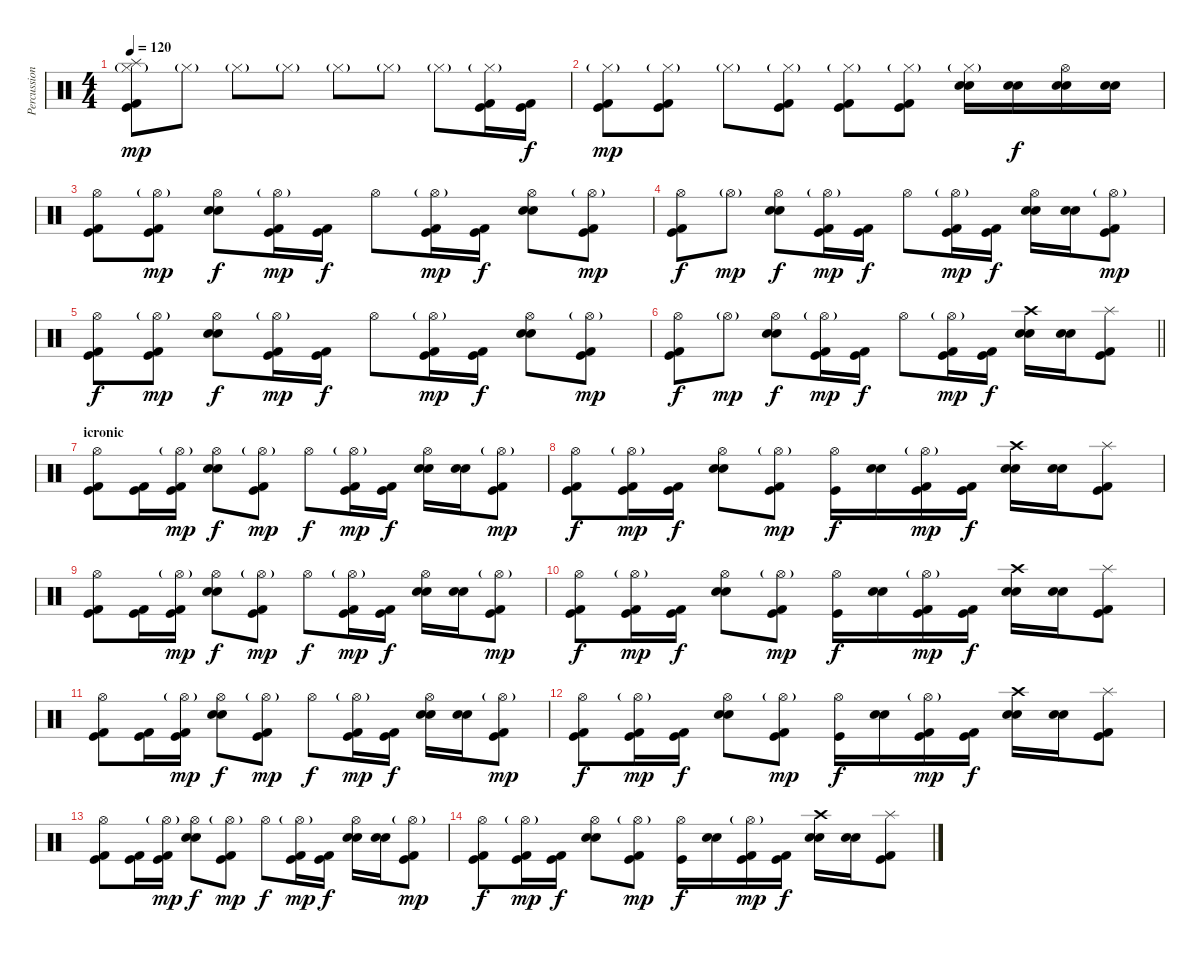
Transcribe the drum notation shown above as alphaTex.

\track ("Percussion" "Percussion") {instrument percussion}
\staff {score}
\articulation defaults
\ts (4 4)
\tempo 120
\clef neutral
\ks c
("Hi-Hat (closed)"{g} "Splash (hit)" "Kick (hit) 2" "Kick (hit)").8{dy mp} "Hi-Hat (closed)"{g}.8 "Hi-Hat (closed)"{g}.8 "Hi-Hat (closed)"{g}.8 "Hi-Hat (closed)"{g}.8 "Hi-Hat (closed)"{g}.8 "Hi-Hat (closed)"{g}.8 ("Hi-Hat (closed)"{g} "Kick (hit) 2" "Kick (hit)").16 ("Kick (hit) 2" "Kick (hit)").16{dy f} |
("Hi-Hat (closed)"{g} "Kick (hit) 2" "Kick (hit)").8{dy mp} ("Hi-Hat (closed)"{g} "Kick (hit) 2" "Kick (hit)").8 "Hi-Hat (closed)"{g}.8 ("Hi-Hat (closed)"{g} "Kick (hit) 2" "Kick (hit)").8 ("Hi-Hat (closed)"{g} "Kick (hit) 2" "Kick (hit)").8 ("Hi-Hat (closed)"{g} "Kick (hit) 2" "Kick (hit)").8 ("Hi-Hat (closed)"{g} "Electric Snare (hit)" "Snare (hit) 2").16 ("Electric Snare (hit)" "Snare (hit) 2").16{dy f} ("Hi-Hat (open)" "Electric Snare (hit)" "Snare (hit) 2").16 ("Electric Snare (hit)" "Snare (hit) 2").16 |
("Hi-Hat (open)" "Kick (hit) 2" "Kick (hit)").8 ("Hi-Hat (open)"{g} "Kick (hit) 2" "Kick (hit)").8{dy mp} ("Hi-Hat (open)" "Electric Snare (hit)" "Snare (hit) 2").8{dy f} ("Hi-Hat (open)"{g} "Kick (hit) 2" "Kick (hit)").16{dy mp} ("Kick (hit) 2" "Kick (hit)").16{dy f} "Hi-Hat (open)".8 ("Hi-Hat (open)"{g} "Kick (hit) 2" "Kick (hit)").16{dy mp} ("Kick (hit) 2" "Kick (hit)").16{dy f} ("Hi-Hat (open)" "Electric Snare (hit)" "Snare (hit) 2").8 ("Hi-Hat (open)"{g} "Kick (hit) 2" "Kick (hit)").8{dy mp} |
("Hi-Hat (open)" "Kick (hit) 2" "Kick (hit)").8{dy f} "Hi-Hat (open)"{g}.8{dy mp} ("Hi-Hat (open)" "Electric Snare (hit)" "Snare (hit) 2").8{dy f} ("Hi-Hat (open)"{g} "Kick (hit) 2" "Kick (hit)").16{dy mp} ("Kick (hit) 2" "Kick (hit)").16{dy f} "Hi-Hat (open)".8 ("Hi-Hat (open)"{g} "Kick (hit) 2" "Kick (hit)").16{dy mp} ("Kick (hit) 2" "Kick (hit)").16{dy f} ("Hi-Hat (open)" "Electric Snare (hit)" "Snare (hit) 2").16 ("Electric Snare (hit)" "Snare (hit) 2").16 ("Hi-Hat (open)"{g} "Kick (hit) 2" "Kick (hit)").8{dy mp} |
("Hi-Hat (open)" "Kick (hit) 2" "Kick (hit)").8{dy f} ("Hi-Hat (open)"{g} "Kick (hit) 2" "Kick (hit)").8{dy mp} ("Hi-Hat (open)" "Electric Snare (hit)" "Snare (hit) 2").8{dy f} ("Hi-Hat (open)"{g} "Kick (hit) 2" "Kick (hit)").16{dy mp} ("Kick (hit) 2" "Kick (hit)").16{dy f} "Hi-Hat (open)".8 ("Hi-Hat (open)"{g} "Kick (hit) 2" "Kick (hit)").16{dy mp} ("Kick (hit) 2" "Kick (hit)").16{dy f} ("Hi-Hat (open)" "Electric Snare (hit)" "Snare (hit) 2").8 ("Hi-Hat (open)"{g} "Kick (hit) 2" "Kick (hit)").8{dy mp} |
\barLineRight lightlight
("Hi-Hat (open)" "Kick (hit) 2" "Kick (hit)").8{dy f} "Hi-Hat (open)"{g}.8{dy mp} ("Hi-Hat (open)" "Electric Snare (hit)" "Snare (hit) 2").8{dy f} ("Hi-Hat (open)"{g} "Kick (hit) 2" "Kick (hit)").16{dy mp} ("Kick (hit) 2" "Kick (hit)").16{dy f} "Hi-Hat (open)".8 ("Hi-Hat (open)"{g} "Kick (hit) 2" "Kick (hit)").16{dy mp} ("Kick (hit) 2" "Kick (hit)").16{dy f} ("Crash high (hit)" "Electric Snare (hit)" "Snare (hit) 2").16 ("Electric Snare (hit)" "Snare (hit) 2").16 ("Splash (hit)" "Kick (hit) 2" "Kick (hit)").8 |
\section ("" "icronic")
("Hi-Hat (open)" "Kick (hit) 2" "Kick (hit)").8 ("Kick (hit) 2" "Kick (hit)").16 ("Hi-Hat (open)"{g} "Kick (hit) 2" "Kick (hit)").16{dy mp} ("Hi-Hat (open)" "Electric Snare (hit)" "Snare (hit) 2").8{dy f} ("Hi-Hat (open)"{g} "Kick (hit) 2" "Kick (hit)").8{dy mp} "Hi-Hat (open)".8{dy f} ("Hi-Hat (open)"{g} "Kick (hit) 2" "Kick (hit)").16{dy mp} ("Kick (hit) 2" "Kick (hit)").16{dy f} ("Hi-Hat (open)" "Electric Snare (hit)" "Snare (hit) 2").16 ("Electric Snare (hit)" "Snare (hit) 2").16 ("Hi-Hat (open)"{g} "Kick (hit) 2" "Kick (hit)").8{dy mp} |
("Hi-Hat (open)" "Kick (hit) 2" "Kick (hit)").8{dy f} ("Hi-Hat (open)"{g} "Kick (hit) 2" "Kick (hit)").16{dy mp} ("Kick (hit) 2" "Kick (hit)").16{dy f} ("Hi-Hat (open)" "Electric Snare (hit)" "Snare (hit) 2").8 ("Hi-Hat (open)"{g} "Kick (hit) 2" "Kick (hit)").8{dy mp} ("Hi-Hat (open)" "Kick (hit)").16{dy f} ("Electric Snare (hit)" "Snare (hit) 2").16 ("Hi-Hat (open)"{g} "Kick (hit) 2" "Kick (hit)").16{dy mp} ("Kick (hit) 2" "Kick (hit)").16{dy f} ("Crash high (hit)" "Electric Snare (hit)" "Snare (hit) 2").16 ("Electric Snare (hit)" "Snare (hit) 2").16 ("Splash (hit)" "Kick (hit) 2" "Kick (hit)").8 |
("Hi-Hat (open)" "Kick (hit) 2" "Kick (hit)").8 ("Kick (hit) 2" "Kick (hit)").16 ("Hi-Hat (open)"{g} "Kick (hit) 2" "Kick (hit)").16{dy mp} ("Hi-Hat (open)" "Electric Snare (hit)" "Snare (hit) 2").8{dy f} ("Hi-Hat (open)"{g} "Kick (hit) 2" "Kick (hit)").8{dy mp} "Hi-Hat (open)".8{dy f} ("Hi-Hat (open)"{g} "Kick (hit) 2" "Kick (hit)").16{dy mp} ("Kick (hit) 2" "Kick (hit)").16{dy f} ("Hi-Hat (open)" "Electric Snare (hit)" "Snare (hit) 2").16 ("Electric Snare (hit)" "Snare (hit) 2").16 ("Hi-Hat (open)"{g} "Kick (hit) 2" "Kick (hit)").8{dy mp} |
("Hi-Hat (open)" "Kick (hit) 2" "Kick (hit)").8{dy f} ("Hi-Hat (open)"{g} "Kick (hit) 2" "Kick (hit)").16{dy mp} ("Kick (hit) 2" "Kick (hit)").16{dy f} ("Hi-Hat (open)" "Electric Snare (hit)" "Snare (hit) 2").8 ("Hi-Hat (open)"{g} "Kick (hit) 2" "Kick (hit)").8{dy mp} ("Hi-Hat (open)" "Kick (hit)").16{dy f} ("Electric Snare (hit)" "Snare (hit) 2").16 ("Hi-Hat (open)"{g} "Kick (hit) 2" "Kick (hit)").16{dy mp} ("Kick (hit) 2" "Kick (hit)").16{dy f} ("Crash high (hit)" "Electric Snare (hit)" "Snare (hit) 2").16 ("Electric Snare (hit)" "Snare (hit) 2").16 ("Splash (hit)" "Kick (hit) 2" "Kick (hit)").8 |
("Hi-Hat (open)" "Kick (hit) 2" "Kick (hit)").8 ("Kick (hit) 2" "Kick (hit)").16 ("Hi-Hat (open)"{g} "Kick (hit) 2" "Kick (hit)").16{dy mp} ("Hi-Hat (open)" "Electric Snare (hit)" "Snare (hit) 2").8{dy f} ("Hi-Hat (open)"{g} "Kick (hit) 2" "Kick (hit)").8{dy mp} "Hi-Hat (open)".8{dy f} ("Hi-Hat (open)"{g} "Kick (hit) 2" "Kick (hit)").16{dy mp} ("Kick (hit) 2" "Kick (hit)").16{dy f} ("Hi-Hat (open)" "Electric Snare (hit)" "Snare (hit) 2").16 ("Electric Snare (hit)" "Snare (hit) 2").16 ("Hi-Hat (open)"{g} "Kick (hit) 2" "Kick (hit)").8{dy mp} |
("Hi-Hat (open)" "Kick (hit) 2" "Kick (hit)").8{dy f} ("Hi-Hat (open)"{g} "Kick (hit) 2" "Kick (hit)").16{dy mp} ("Kick (hit) 2" "Kick (hit)").16{dy f} ("Hi-Hat (open)" "Electric Snare (hit)" "Snare (hit) 2").8 ("Hi-Hat (open)"{g} "Kick (hit) 2" "Kick (hit)").8{dy mp} ("Hi-Hat (open)" "Kick (hit)").16{dy f} ("Electric Snare (hit)" "Snare (hit) 2").16 ("Hi-Hat (open)"{g} "Kick (hit) 2" "Kick (hit)").16{dy mp} ("Kick (hit) 2" "Kick (hit)").16{dy f} ("Crash high (hit)" "Electric Snare (hit)" "Snare (hit) 2").16 ("Electric Snare (hit)" "Snare (hit) 2").16 ("Splash (hit)" "Kick (hit) 2" "Kick (hit)").8 |
("Hi-Hat (open)" "Kick (hit) 2" "Kick (hit)").8 ("Kick (hit) 2" "Kick (hit)").16 ("Hi-Hat (open)"{g} "Kick (hit) 2" "Kick (hit)").16{dy mp} ("Hi-Hat (open)" "Electric Snare (hit)" "Snare (hit) 2").8{dy f} ("Hi-Hat (open)"{g} "Kick (hit) 2" "Kick (hit)").8{dy mp} "Hi-Hat (open)".8{dy f} ("Hi-Hat (open)"{g} "Kick (hit) 2" "Kick (hit)").16{dy mp} ("Kick (hit) 2" "Kick (hit)").16{dy f} ("Hi-Hat (open)" "Electric Snare (hit)" "Snare (hit) 2").16 ("Electric Snare (hit)" "Snare (hit) 2").16 ("Hi-Hat (open)"{g} "Kick (hit) 2" "Kick (hit)").8{dy mp} |
("Hi-Hat (open)" "Kick (hit) 2" "Kick (hit)").8{dy f} ("Hi-Hat (open)"{g} "Kick (hit) 2" "Kick (hit)").16{dy mp} ("Kick (hit) 2" "Kick (hit)").16{dy f} ("Hi-Hat (open)" "Electric Snare (hit)" "Snare (hit) 2").8 ("Hi-Hat (open)"{g} "Kick (hit) 2" "Kick (hit)").8{dy mp} ("Hi-Hat (open)" "Kick (hit)").16{dy f} ("Electric Snare (hit)" "Snare (hit) 2").16 ("Hi-Hat (open)"{g} "Kick (hit) 2" "Kick (hit)").16{dy mp} ("Kick (hit) 2" "Kick (hit)").16{dy f} ("Crash high (hit)" "Electric Snare (hit)" "Snare (hit) 2").16 ("Electric Snare (hit)" "Snare (hit) 2").16 ("Splash (hit)" "Kick (hit) 2" "Kick (hit)").8
